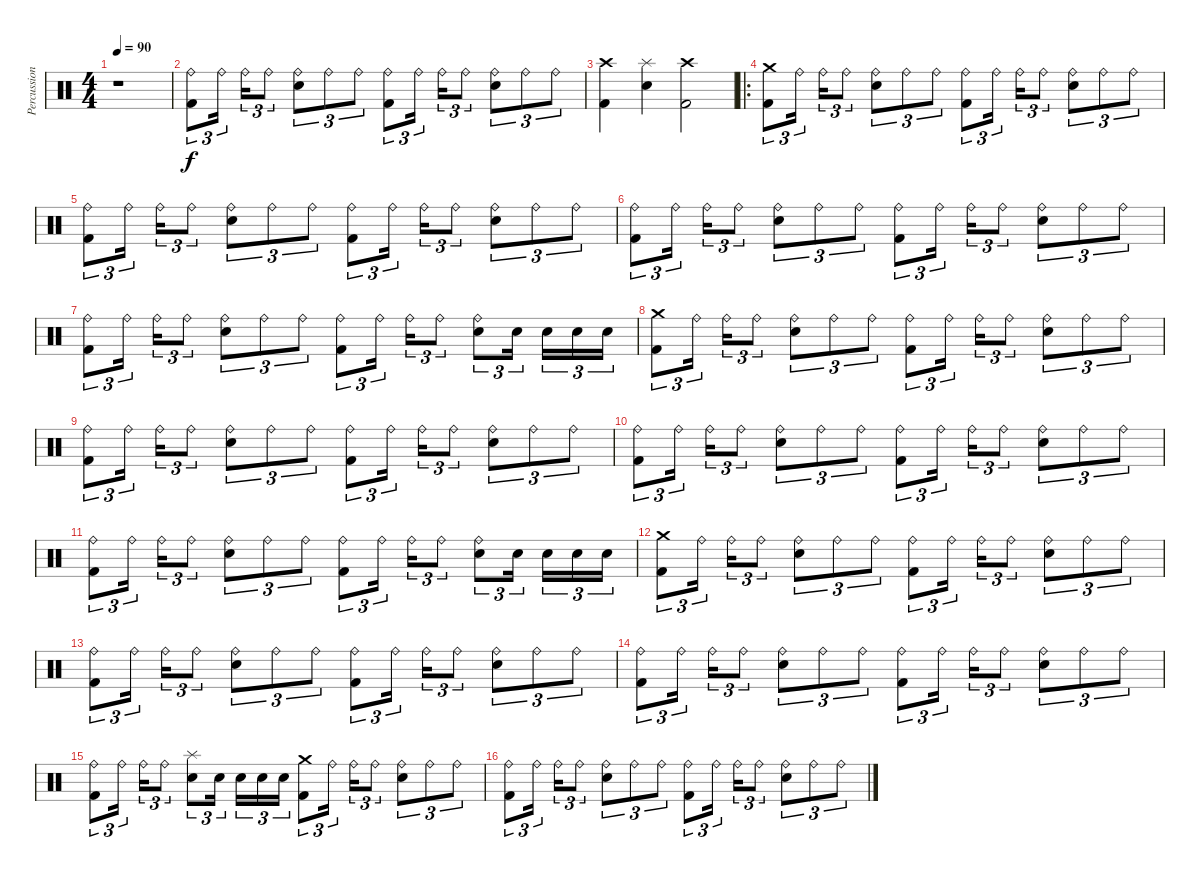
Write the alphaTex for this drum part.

\track ("Percussions" "Percussion") {instrument percussion}
\staff {score}
\articulation defaults
\ts (4 4)
\tempo 90
\clef neutral
\ks c
r.1{dy f} |
("Ride (bell)" "Kick (hit) 2").8{tu (3 2)} "Ride (bell)".16{tu (3 2)} "Ride (bell)".16{tu (3 2)} "Ride (bell)".8{tu (3 2)} ("Ride (bell)" "Snare (hit) 2").8{tu (3 2)} "Ride (bell)".8{tu (3 2)} "Ride (bell)".8{tu (3 2)} ("Ride (bell)" "Kick (hit) 2").8{tu (3 2)} "Ride (bell)".16{tu (3 2)} "Ride (bell)".16{tu (3 2)} "Ride (bell)".8{tu (3 2)} ("Ride (bell)" "Snare (hit) 2").8{tu (3 2)} "Ride (bell)".8{tu (3 2)} "Ride (bell)".8{tu (3 2)} |
("Crash high (hit)" "Kick (hit) 2").4 ("Splash (hit)" "Snare (hit) 2").4 ("Crash high (hit)" "Kick (hit) 2").2 |
\ro
("Crash medium (hit)" "Kick (hit) 2").8{tu (3 2)} "Ride (bell)".16{tu (3 2)} "Ride (bell)".16{tu (3 2)} "Ride (bell)".8{tu (3 2)} ("Ride (bell)" "Snare (hit) 2").8{tu (3 2)} "Ride (bell)".8{tu (3 2)} "Ride (bell)".8{tu (3 2)} ("Ride (bell)" "Kick (hit) 2").8{tu (3 2)} "Ride (bell)".16{tu (3 2)} "Ride (bell)".16{tu (3 2)} "Ride (bell)".8{tu (3 2)} ("Ride (bell)" "Snare (hit) 2").8{tu (3 2)} "Ride (bell)".8{tu (3 2)} "Ride (bell)".8{tu (3 2)} |
("Ride (bell)" "Kick (hit) 2").8{tu (3 2)} "Ride (bell)".16{tu (3 2)} "Ride (bell)".16{tu (3 2)} "Ride (bell)".8{tu (3 2)} ("Ride (bell)" "Snare (hit) 2").8{tu (3 2)} "Ride (bell)".8{tu (3 2)} "Ride (bell)".8{tu (3 2)} ("Ride (bell)" "Kick (hit) 2").8{tu (3 2)} "Ride (bell)".16{tu (3 2)} "Ride (bell)".16{tu (3 2)} "Ride (bell)".8{tu (3 2)} ("Ride (bell)" "Snare (hit) 2").8{tu (3 2)} "Ride (bell)".8{tu (3 2)} "Ride (bell)".8{tu (3 2)} |
("Ride (bell)" "Kick (hit) 2").8{tu (3 2)} "Ride (bell)".16{tu (3 2)} "Ride (bell)".16{tu (3 2)} "Ride (bell)".8{tu (3 2)} ("Ride (bell)" "Snare (hit) 2").8{tu (3 2)} "Ride (bell)".8{tu (3 2)} "Ride (bell)".8{tu (3 2)} ("Ride (bell)" "Kick (hit) 2").8{tu (3 2)} "Ride (bell)".16{tu (3 2)} "Ride (bell)".16{tu (3 2)} "Ride (bell)".8{tu (3 2)} ("Ride (bell)" "Snare (hit) 2").8{tu (3 2)} "Ride (bell)".8{tu (3 2)} "Ride (bell)".8{tu (3 2)} |
("Ride (bell)" "Kick (hit) 2").8{tu (3 2)} "Ride (bell)".16{tu (3 2)} "Ride (bell)".16{tu (3 2)} "Ride (bell)".8{tu (3 2)} ("Ride (bell)" "Snare (hit) 2").8{tu (3 2)} "Ride (bell)".8{tu (3 2)} "Ride (bell)".8{tu (3 2)} ("Ride (bell)" "Kick (hit) 2").8{tu (3 2)} "Ride (bell)".16{tu (3 2)} "Ride (bell)".16{tu (3 2)} "Ride (bell)".8{tu (3 2)} ("Ride (bell)" "Snare (hit) 2").8{tu (3 2)} "Snare (hit) 2".16{tu (3 2)} "Snare (hit) 2".16{tu (3 2)} "Snare (hit) 2".16{tu (3 2)} "Snare (hit) 2".16{tu (3 2)} |
("Crash medium (hit)" "Kick (hit) 2").8{tu (3 2)} "Ride (bell)".16{tu (3 2)} "Ride (bell)".16{tu (3 2)} "Ride (bell)".8{tu (3 2)} ("Ride (bell)" "Snare (hit) 2").8{tu (3 2)} "Ride (bell)".8{tu (3 2)} "Ride (bell)".8{tu (3 2)} ("Ride (bell)" "Kick (hit) 2").8{tu (3 2)} "Ride (bell)".16{tu (3 2)} "Ride (bell)".16{tu (3 2)} "Ride (bell)".8{tu (3 2)} ("Ride (bell)" "Snare (hit) 2").8{tu (3 2)} "Ride (bell)".8{tu (3 2)} "Ride (bell)".8{tu (3 2)} |
("Ride (bell)" "Kick (hit) 2").8{tu (3 2)} "Ride (bell)".16{tu (3 2)} "Ride (bell)".16{tu (3 2)} "Ride (bell)".8{tu (3 2)} ("Ride (bell)" "Snare (hit) 2").8{tu (3 2)} "Ride (bell)".8{tu (3 2)} "Ride (bell)".8{tu (3 2)} ("Ride (bell)" "Kick (hit) 2").8{tu (3 2)} "Ride (bell)".16{tu (3 2)} "Ride (bell)".16{tu (3 2)} "Ride (bell)".8{tu (3 2)} ("Ride (bell)" "Snare (hit) 2").8{tu (3 2)} "Ride (bell)".8{tu (3 2)} "Ride (bell)".8{tu (3 2)} |
("Ride (bell)" "Kick (hit) 2").8{tu (3 2)} "Ride (bell)".16{tu (3 2)} "Ride (bell)".16{tu (3 2)} "Ride (bell)".8{tu (3 2)} ("Ride (bell)" "Snare (hit) 2").8{tu (3 2)} "Ride (bell)".8{tu (3 2)} "Ride (bell)".8{tu (3 2)} ("Ride (bell)" "Kick (hit) 2").8{tu (3 2)} "Ride (bell)".16{tu (3 2)} "Ride (bell)".16{tu (3 2)} "Ride (bell)".8{tu (3 2)} ("Ride (bell)" "Snare (hit) 2").8{tu (3 2)} "Ride (bell)".8{tu (3 2)} "Ride (bell)".8{tu (3 2)} |
("Ride (bell)" "Kick (hit) 2").8{tu (3 2)} "Ride (bell)".16{tu (3 2)} "Ride (bell)".16{tu (3 2)} "Ride (bell)".8{tu (3 2)} ("Ride (bell)" "Snare (hit) 2").8{tu (3 2)} "Ride (bell)".8{tu (3 2)} "Ride (bell)".8{tu (3 2)} ("Ride (bell)" "Kick (hit) 2").8{tu (3 2)} "Ride (bell)".16{tu (3 2)} "Ride (bell)".16{tu (3 2)} "Ride (bell)".8{tu (3 2)} ("Ride (bell)" "Snare (hit) 2").8{tu (3 2)} "Snare (hit) 2".16{tu (3 2)} "Snare (hit) 2".16{tu (3 2)} "Snare (hit) 2".16{tu (3 2)} "Snare (hit) 2".16{tu (3 2)} |
("Crash medium (hit)" "Kick (hit) 2").8{tu (3 2)} "Ride (bell)".16{tu (3 2)} "Ride (bell)".16{tu (3 2)} "Ride (bell)".8{tu (3 2)} ("Ride (bell)" "Snare (hit) 2").8{tu (3 2)} "Ride (bell)".8{tu (3 2)} "Ride (bell)".8{tu (3 2)} ("Ride (bell)" "Kick (hit) 2").8{tu (3 2)} "Ride (bell)".16{tu (3 2)} "Ride (bell)".16{tu (3 2)} "Ride (bell)".8{tu (3 2)} ("Ride (bell)" "Snare (hit) 2").8{tu (3 2)} "Ride (bell)".8{tu (3 2)} "Ride (bell)".8{tu (3 2)} |
("Ride (bell)" "Kick (hit) 2").8{tu (3 2)} "Ride (bell)".16{tu (3 2)} "Ride (bell)".16{tu (3 2)} "Ride (bell)".8{tu (3 2)} ("Ride (bell)" "Snare (hit) 2").8{tu (3 2)} "Ride (bell)".8{tu (3 2)} "Ride (bell)".8{tu (3 2)} ("Ride (bell)" "Kick (hit) 2").8{tu (3 2)} "Ride (bell)".16{tu (3 2)} "Ride (bell)".16{tu (3 2)} "Ride (bell)".8{tu (3 2)} ("Ride (bell)" "Snare (hit) 2").8{tu (3 2)} "Ride (bell)".8{tu (3 2)} "Ride (bell)".8{tu (3 2)} |
("Ride (bell)" "Kick (hit) 2").8{tu (3 2)} "Ride (bell)".16{tu (3 2)} "Ride (bell)".16{tu (3 2)} "Ride (bell)".8{tu (3 2)} ("Ride (bell)" "Snare (hit) 2").8{tu (3 2)} "Ride (bell)".8{tu (3 2)} "Ride (bell)".8{tu (3 2)} ("Ride (bell)" "Kick (hit) 2").8{tu (3 2)} "Ride (bell)".16{tu (3 2)} "Ride (bell)".16{tu (3 2)} "Ride (bell)".8{tu (3 2)} ("Ride (bell)" "Snare (hit) 2").8{tu (3 2)} "Ride (bell)".8{tu (3 2)} "Ride (bell)".8{tu (3 2)} |
("Ride (bell)" "Kick (hit) 2").8{tu (3 2)} "Ride (bell)".16{tu (3 2)} "Ride (bell)".16{tu (3 2)} "Ride (bell)".8{tu (3 2)} ("Splash (hit)" "Snare (hit) 2").8{tu (3 2)} "Snare (hit) 2".16{tu (3 2)} "Snare (hit) 2".16{tu (3 2)} "Snare (hit) 2".16{tu (3 2)} "Snare (hit) 2".16{tu (3 2)} ("Crash medium (hit)" "Kick (hit) 2").8{tu (3 2)} "Ride (bell)".16{tu (3 2)} "Ride (bell)".16{tu (3 2)} "Ride (bell)".8{tu (3 2)} ("Ride (bell)" "Snare (hit) 2").8{tu (3 2)} "Ride (bell)".8{tu (3 2)} "Ride (bell)".8{tu (3 2)} |
("Ride (bell)" "Kick (hit) 2").8{tu (3 2)} "Ride (bell)".16{tu (3 2)} "Ride (bell)".16{tu (3 2)} "Ride (bell)".8{tu (3 2)} ("Ride (bell)" "Snare (hit) 2").8{tu (3 2)} "Ride (bell)".8{tu (3 2)} "Ride (bell)".8{tu (3 2)} ("Ride (bell)" "Kick (hit) 2").8{tu (3 2)} "Ride (bell)".16{tu (3 2)} "Ride (bell)".16{tu (3 2)} "Ride (bell)".8{tu (3 2)} ("Ride (bell)" "Snare (hit) 2").8{tu (3 2)} "Ride (bell)".8{tu (3 2)} "Ride (bell)".8{tu (3 2)}
